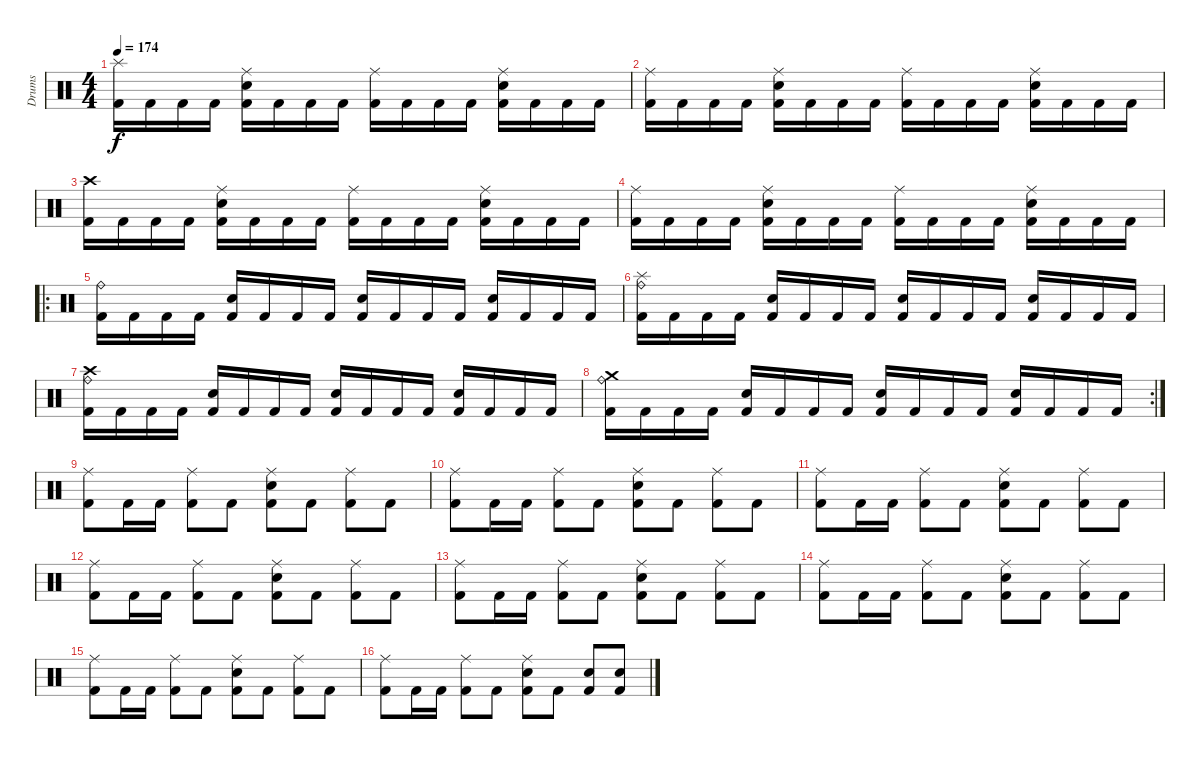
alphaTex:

\track ("Drums" "Drums") {instrument percussion}
\staff {score}
\articulation defaults
\ts (4 4)
\tempo 174
\clef neutral
\ks c
("Splash (hit)" "Kick (hit) 2").16{dy f} "Kick (hit) 2".16 "Kick (hit) 2".16 "Kick (hit) 2".16 ("Electric Snare (hit)" "Ride (middle)" "Kick (hit) 2").16 "Kick (hit) 2".16 "Kick (hit) 2".16 "Kick (hit) 2".16 ("Ride (middle)" "Kick (hit) 2").16 "Kick (hit) 2".16 "Kick (hit) 2".16 "Kick (hit) 2".16 ("Electric Snare (hit)" "Ride (middle)" "Kick (hit) 2").16 "Kick (hit) 2".16 "Kick (hit) 2".16 "Kick (hit) 2".16 |
("Ride (middle)" "Kick (hit) 2").16 "Kick (hit) 2".16 "Kick (hit) 2".16 "Kick (hit) 2".16 ("Electric Snare (hit)" "Ride (middle)" "Kick (hit) 2").16 "Kick (hit) 2".16 "Kick (hit) 2".16 "Kick (hit) 2".16 ("Ride (middle)" "Kick (hit) 2").16 "Kick (hit) 2".16 "Kick (hit) 2".16 "Kick (hit) 2".16 ("Electric Snare (hit)" "Ride (middle)" "Kick (hit) 2").16 "Kick (hit) 2".16 "Kick (hit) 2".16 "Kick (hit) 2".16 |
("Crash high (hit)" "Kick (hit) 2").16 "Kick (hit) 2".16 "Kick (hit) 2".16 "Kick (hit) 2".16 ("Electric Snare (hit)" "Ride (middle)" "Kick (hit) 2").16 "Kick (hit) 2".16 "Kick (hit) 2".16 "Kick (hit) 2".16 ("Ride (middle)" "Kick (hit) 2").16 "Kick (hit) 2".16 "Kick (hit) 2".16 "Kick (hit) 2".16 ("Electric Snare (hit)" "Ride (middle)" "Kick (hit) 2").16 "Kick (hit) 2".16 "Kick (hit) 2".16 "Kick (hit) 2".16 |
("Ride (middle)" "Kick (hit) 2").16 "Kick (hit) 2".16 "Kick (hit) 2".16 "Kick (hit) 2".16 ("Electric Snare (hit)" "Ride (middle)" "Kick (hit) 2").16 "Kick (hit) 2".16 "Kick (hit) 2".16 "Kick (hit) 2".16 ("Ride (middle)" "Kick (hit) 2").16 "Kick (hit) 2".16 "Kick (hit) 2".16 "Kick (hit) 2".16 ("Electric Snare (hit)" "Ride (middle)" "Kick (hit) 2").16 "Kick (hit) 2".16 "Kick (hit) 2".16 "Kick (hit) 2".16 |
\ro
("Ride (bell)" "Kick (hit) 2").16 "Kick (hit) 2".16 "Kick (hit) 2".16 "Kick (hit) 2".16 ("Electric Snare (hit)" "Kick (hit) 2").16 "Kick (hit) 2".16 "Kick (hit) 2".16 "Kick (hit) 2".16 ("Electric Snare (hit)" "Kick (hit) 2").16 "Kick (hit) 2".16 "Kick (hit) 2".16 "Kick (hit) 2".16 ("Electric Snare (hit)" "Kick (hit) 2").16 "Kick (hit) 2".16 "Kick (hit) 2".16 "Kick (hit) 2".16 |
("Ride (bell)" "Splash (hit)" "Kick (hit) 2").16 "Kick (hit) 2".16 "Kick (hit) 2".16 "Kick (hit) 2".16 ("Electric Snare (hit)" "Kick (hit) 2").16 "Kick (hit) 2".16 "Kick (hit) 2".16 "Kick (hit) 2".16 ("Electric Snare (hit)" "Kick (hit) 2").16 "Kick (hit) 2".16 "Kick (hit) 2".16 "Kick (hit) 2".16 ("Electric Snare (hit)" "Kick (hit) 2").16 "Kick (hit) 2".16 "Kick (hit) 2".16 "Kick (hit) 2".16 |
("Ride (bell)" "Crash high (hit)" "Kick (hit) 2").16 "Kick (hit) 2".16 "Kick (hit) 2".16 "Kick (hit) 2".16 ("Electric Snare (hit)" "Kick (hit) 2").16 "Kick (hit) 2".16 "Kick (hit) 2".16 "Kick (hit) 2".16 ("Electric Snare (hit)" "Kick (hit) 2").16 "Kick (hit) 2".16 "Kick (hit) 2".16 "Kick (hit) 2".16 ("Electric Snare (hit)" "Kick (hit) 2").16 "Kick (hit) 2".16 "Kick (hit) 2".16 "Kick (hit) 2".16 |
\rc 2
("Ride (bell)" "Crash medium (hit)" "Kick (hit) 2").16 "Kick (hit) 2".16 "Kick (hit) 2".16 "Kick (hit) 2".16 ("Electric Snare (hit)" "Kick (hit) 2").16 "Kick (hit) 2".16 "Kick (hit) 2".16 "Kick (hit) 2".16 ("Electric Snare (hit)" "Kick (hit) 2").16 "Kick (hit) 2".16 "Kick (hit) 2".16 "Kick (hit) 2".16 ("Electric Snare (hit)" "Kick (hit) 2").16 "Kick (hit) 2".16 "Kick (hit) 2".16 "Kick (hit) 2".16 |
("Ride (middle)" "Kick (hit) 2").8 "Kick (hit) 2".16 "Kick (hit) 2".16 ("Ride (middle)" "Kick (hit) 2").8 "Kick (hit) 2".8 ("Ride (middle)" "Electric Snare (hit)" "Kick (hit) 2").8 "Kick (hit) 2".8 ("Ride (middle)" "Kick (hit) 2").8 "Kick (hit) 2".8 |
("Ride (middle)" "Kick (hit) 2").8 "Kick (hit) 2".16 "Kick (hit) 2".16 ("Ride (middle)" "Kick (hit) 2").8 "Kick (hit) 2".8 ("Ride (middle)" "Electric Snare (hit)" "Kick (hit) 2").8 "Kick (hit) 2".8 ("Ride (middle)" "Kick (hit) 2").8 "Kick (hit) 2".8 |
("Ride (middle)" "Kick (hit) 2").8 "Kick (hit) 2".16 "Kick (hit) 2".16 ("Ride (middle)" "Kick (hit) 2").8 "Kick (hit) 2".8 ("Ride (middle)" "Electric Snare (hit)" "Kick (hit) 2").8 "Kick (hit) 2".8 ("Ride (middle)" "Kick (hit) 2").8 "Kick (hit) 2".8 |
("Ride (middle)" "Kick (hit) 2").8 "Kick (hit) 2".16 "Kick (hit) 2".16 ("Ride (middle)" "Kick (hit) 2").8 "Kick (hit) 2".8 ("Ride (middle)" "Electric Snare (hit)" "Kick (hit) 2").8 "Kick (hit) 2".8 ("Ride (middle)" "Kick (hit) 2").8 "Kick (hit) 2".8 |
("Ride (middle)" "Kick (hit) 2").8 "Kick (hit) 2".16 "Kick (hit) 2".16 ("Ride (middle)" "Kick (hit) 2").8 "Kick (hit) 2".8 ("Ride (middle)" "Electric Snare (hit)" "Kick (hit) 2").8 "Kick (hit) 2".8 ("Ride (middle)" "Kick (hit) 2").8 "Kick (hit) 2".8 |
("Ride (middle)" "Kick (hit) 2").8 "Kick (hit) 2".16 "Kick (hit) 2".16 ("Ride (middle)" "Kick (hit) 2").8 "Kick (hit) 2".8 ("Ride (middle)" "Electric Snare (hit)" "Kick (hit) 2").8 "Kick (hit) 2".8 ("Ride (middle)" "Kick (hit) 2").8 "Kick (hit) 2".8 |
("Ride (middle)" "Kick (hit) 2").8 "Kick (hit) 2".16 "Kick (hit) 2".16 ("Ride (middle)" "Kick (hit) 2").8 "Kick (hit) 2".8 ("Ride (middle)" "Electric Snare (hit)" "Kick (hit) 2").8 "Kick (hit) 2".8 ("Ride (middle)" "Kick (hit) 2").8 "Kick (hit) 2".8 |
("Ride (middle)" "Kick (hit) 2").8 "Kick (hit) 2".16 "Kick (hit) 2".16 ("Ride (middle)" "Kick (hit) 2").8 "Kick (hit) 2".8 ("Ride (middle)" "Electric Snare (hit)" "Kick (hit) 2").8 "Kick (hit) 2".8 ("Electric Snare (hit)" "Kick (hit) 2").8 ("Electric Snare (hit)" "Kick (hit) 2").8
